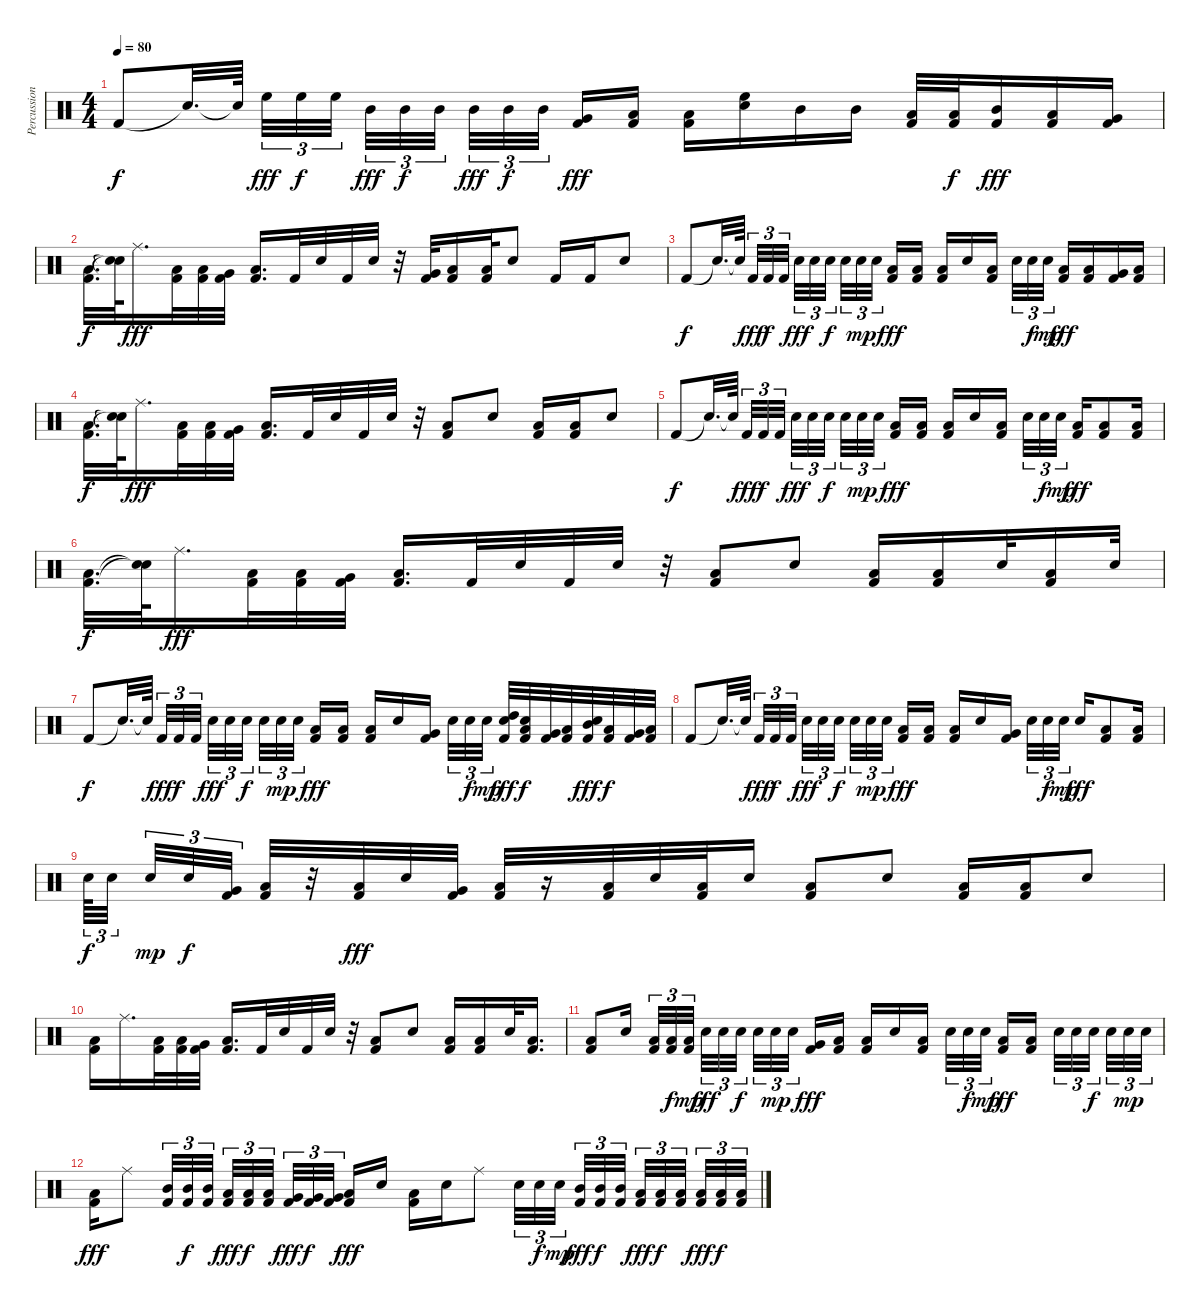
\track ("Percussion2" "Percussion") {instrument percussion}
\staff {score}
\articulation defaults
\ts (4 4)
\tempo 80
\clef neutral
\ks c "Kick (hit) 2".8{dy f} "Snare (hit)"{t}.32{d} "Snare (hit)"{t}.64{beam splitsecondary} "High Floor Tom (hit)".32{tu (3 2) dy fff} "High Floor Tom (hit)".32{tu (3 2) dy f} "High Floor Tom (hit)".32{tu (3 2)} "Mid Tom (hit)".32{tu (3 2) dy fff} "Mid Tom (hit)".32{tu (3 2) dy f} "Mid Tom (hit)".32{tu (3 2) beam splitsecondary} "Mid Tom (hit)".32{tu (3 2) dy fff} "Mid Tom (hit)".32{tu (3 2) dy f} "Mid Tom (hit)".32{tu (3 2) beam splitsecondary}
("Kick (hit) 2" "Very Low Tom (hit)").16{dy fff} ("Kick (hit) 2" "Low Floor Tom (hit)").16 ("Kick (hit) 2" "Low Floor Tom (hit)").16 ("Snare (hit) 2" "High Floor Tom (hit)").16 "Mid Tom (hit)".16 "Mid Tom (hit)".16 ("Kick (hit) 2" "Low Floor Tom (hit)").32 ("Kick (hit) 2" "Low Floor Tom (hit)").32{dy f} ("Kick (hit) 2" "Mid Tom (hit)").16{dy fff} ("Kick (hit) 2" "Low Tom (hit)").16 ("Kick (hit) 2" "Very Low Tom (hit)").16 |
("Kick (hit) 2" "Low Floor Tom (hit)").32{d dy f} ("Snare (hit)"{t} "Snare (hit)"{t}).64 "Ride (middle)".16{d dy fff} ("Kick (hit) 2" "Low Floor Tom (hit)").32 ("Kick (hit) 2" "Low Tom (hit)").32 ("Kick (hit) 2" "Very Low Tom (hit)").32 ("Kick (hit) 2" "Low Floor Tom (hit)").16{d} "Kick (hit) 2".32 "Snare (hit) 2".32 "Kick (hit) 2".32 "Snare (hit) 2".32 r.32 ("Kick (hit) 2" "Very Low Tom (hit)").32 ("Kick (hit) 2" "Low Floor Tom (hit)").16 ("Kick (hit) 2" "Low Floor Tom (hit)").32 "Snare (hit) 2".8 "Kick (hit) 2".16 "Kick (hit) 2".16 "Snare (hit) 2".8 |
"Kick (hit) 2".8{dy f} "Snare (hit)"{t}.32{d} "Snare (hit)"{t}.64{beam splitsecondary} "Kick (hit) 2".32{tu (3 2) dy fff} "Kick (hit) 2".32{tu (3 2) dy f} "Kick (hit) 2".32{tu (3 2)} "Snare (hit) 2".32{tu (3 2) dy fff} "Snare (hit) 2".32{tu (3 2)} "Snare (hit) 2".32{tu (3 2) dy f beam splitsecondary} "Snare (hit) 2".32{tu (3 2)} "Snare (hit) 2".32{tu (3 2) dy mp} "Snare (hit) 2".32{tu (3 2) beam splitsecondary} ("Kick (hit) 2" "Low Floor Tom (hit)").16{dy fff} ("Kick (hit) 2" "Low Floor Tom (hit)").16 ("Kick (hit) 2" "Low Floor Tom (hit)").16 "Snare (hit) 2".16 ("Kick (hit) 2" "Low Tom (hit)").16{beam splitsecondary} "Snare (hit) 2".32{tu (3 2)} "Snare (hit) 2".32{tu (3 2) dy f} "Snare (hit) 2".32{tu (3 2) dy mp} ("Kick (hit) 2" "Low Floor Tom (hit)").16{dy fff} ("Kick (hit) 2" "Low Tom (hit)").16 ("Kick (hit) 2" "Very Low Tom (hit)").16 ("Kick (hit) 2" "Low Floor Tom (hit)").16 |
("Kick (hit) 2" "Low Floor Tom (hit)").32{d dy f} ("Snare (hit)"{t} "Snare (hit)"{t}).64 "Ride (middle)".16{d dy fff} ("Kick (hit) 2" "Low Floor Tom (hit)").32 ("Kick (hit) 2" "Low Tom (hit)").32 ("Kick (hit) 2" "Very Low Tom (hit)").32 ("Kick (hit) 2" "Low Floor Tom (hit)").16{d} "Kick (hit) 2".32 "Snare (hit) 2".32 "Kick (hit) 2".32 "Snare (hit) 2".32 r.32 ("Kick (hit) 2" "Low Floor Tom (hit)").8 "Snare (hit) 2".8 ("Kick (hit) 2" "Low Floor Tom (hit)").16 ("Kick (hit) 2" "Low Floor Tom (hit)").16 "Snare (hit) 2".8 |
"Kick (hit) 2".8{dy f} "Snare (hit)"{t}.32{d} "Snare (hit)"{t}.64{beam splitsecondary} "Kick (hit) 2".32{tu (3 2) dy fff} "Kick (hit) 2".32{tu (3 2) dy f} "Kick (hit) 2".32{tu (3 2)} "Snare (hit) 2".32{tu (3 2) dy fff} "Snare (hit) 2".32{tu (3 2)} "Snare (hit) 2".32{tu (3 2) dy f beam splitsecondary} "Snare (hit) 2".32{tu (3 2)} "Snare (hit) 2".32{tu (3 2) dy mp} "Snare (hit) 2".32{tu (3 2) beam splitsecondary} ("Kick (hit) 2" "Low Floor Tom (hit)").16{dy fff} ("Kick (hit) 2" "Low Floor Tom (hit)").16 ("Kick (hit) 2" "Low Floor Tom (hit)").16 "Snare (hit) 2".16 ("Kick (hit) 2" "Low Tom (hit)").16{beam splitsecondary} "Snare (hit) 2".32{tu (3 2)} "Snare (hit) 2".32{tu (3 2) dy f} "Snare (hit) 2".32{tu (3 2) dy mp} ("Kick (hit) 2" "Low Floor Tom (hit)").16{dy fff} ("Kick (hit) 2" "Low Tom (hit)").8 ("Kick (hit) 2" "Low Tom (hit)").16 |
("Kick (hit) 2" "Low Floor Tom (hit)").32{d dy f} ("Snare (hit)"{t} "Snare (hit)"{t}).64 "Ride (middle)".16{d dy fff} ("Kick (hit) 2" "Low Floor Tom (hit)").32 ("Kick (hit) 2" "Low Tom (hit)").32 ("Kick (hit) 2" "Very Low Tom (hit)").32 ("Kick (hit) 2" "Low Floor Tom (hit)").16{d} "Kick (hit) 2".32 "Snare (hit) 2".32 "Kick (hit) 2".32 "Snare (hit) 2".32 r.32 ("Kick (hit) 2" "Low Floor Tom (hit)").8 "Snare (hit) 2".8 ("Kick (hit) 2" "Low Floor Tom (hit)").16 ("Kick (hit) 2" "Low Floor Tom (hit)").16 "Snare (hit) 2".32 ("Kick (hit) 2" "Low Floor Tom (hit)").16 "Snare (hit) 2".32 |
"Kick (hit) 2".8{dy f} "Snare (hit)"{t}.32{d} "Snare (hit)"{t}.64{beam splitsecondary} "Kick (hit) 2".32{tu (3 2) dy fff} "Kick (hit) 2".32{tu (3 2) dy f} "Kick (hit) 2".32{tu (3 2)} "Snare (hit) 2".32{tu (3 2) dy fff} "Snare (hit) 2".32{tu (3 2)} "Snare (hit) 2".32{tu (3 2) dy f beam splitsecondary} "Snare (hit) 2".32{tu (3 2)} "Snare (hit) 2".32{tu (3 2) dy mp} "Snare (hit) 2".32{tu (3 2) beam splitsecondary} ("Kick (hit) 2" "Low Floor Tom (hit)").16{dy fff} ("Kick (hit) 2" "Low Floor Tom (hit)").16 ("Kick (hit) 2" "Low Floor Tom (hit)").16 "Snare (hit) 2".16 ("Kick (hit) 2" "Very Low Tom (hit)").16{beam splitsecondary} "Snare (hit) 2".32{tu (3 2)} "Snare (hit) 2".32{tu (3 2) dy f} "Snare (hit) 2".32{tu (3 2) dy mp} ("Kick (hit) 2" "Snare (hit) 2" "High Tom (hit)").32{dy fff} ("Kick (hit) 2" "Snare (hit) 2" "Low Tom (hit)").32{dy f} ("Kick (hit) 2" "Very Low Tom (hit)").32 ("Kick (hit) 2" "Low Floor Tom (hit)").32 ("Kick (hit) 2" "Snare (hit) 2" "Mid Tom (hit)").32{dy fff} ("Kick (hit) 2" "Low Tom (hit)").32{dy f} ("Kick (hit) 2" "Very Low Tom (hit)").32 ("Kick (hit) 2" "Low Floor Tom (hit)").32 |
"Kick (hit) 2".8 "Snare (hit)"{t}.32{d} "Snare (hit)"{t}.64{beam splitsecondary} "Kick (hit) 2".32{tu (3 2) dy fff} "Kick (hit) 2".32{tu (3 2) dy f} "Kick (hit) 2".32{tu (3 2)} "Snare (hit) 2".32{tu (3 2) dy fff} "Snare (hit) 2".32{tu (3 2)} "Snare (hit) 2".32{tu (3 2) dy f beam splitsecondary} "Snare (hit) 2".32{tu (3 2)} "Snare (hit) 2".32{tu (3 2) dy mp} "Snare (hit) 2".32{tu (3 2) beam splitsecondary} ("Kick (hit) 2" "Low Floor Tom (hit)").16{dy fff} ("Kick (hit) 2" "Low Floor Tom (hit)").16 ("Kick (hit) 2" "Low Floor Tom (hit)").16 "Snare (hit) 2".16 ("Kick (hit) 2" "Very Low Tom (hit)").16{beam splitsecondary} "Snare (hit) 2".32{tu (3 2)} "Snare (hit) 2".32{tu (3 2) dy f} "Snare (hit) 2".32{tu (3 2) dy mp} "Snare (hit) 2".16{dy fff} ("Kick (hit) 2" "Low Floor Tom (hit)").8 ("Kick (hit) 2" "Low Floor Tom (hit)").16 |
"Snare (hit) 2".64{tu (3 2) dy f} "Snare (hit) 2".32{tu (3 2) beam splitsecondary} "Snare (hit) 2".32{tu (3 2) dy mp} "Snare (hit) 2".32{tu (3 2) dy f} ("Kick (hit) 2" "Very Low Tom (hit)").32{tu (3 2) beam splitsecondary} ("Kick (hit) 2" "Low Floor Tom (hit)").32 r.32 ("Kick (hit) 2" "Low Floor Tom (hit)").32{dy fff} "Snare (hit) 2".32 ("Kick (hit) 2" "Very Low Tom (hit)").32 ("Kick (hit) 2" "Low Floor Tom (hit)").32 r.16 ("Kick (hit) 2" "Low Floor Tom (hit)").32 "Snare (hit) 2".32 ("Kick (hit) 2" "Low Floor Tom (hit)").32 "Snare (hit) 2".16 ("Kick (hit) 2" "Low Floor Tom (hit)").8 "Snare (hit) 2".8 ("Kick (hit) 2" "Low Floor Tom (hit)").16 ("Kick (hit) 2" "Low Floor Tom (hit)").16 "Snare (hit) 2".8 |
("Kick (hit) 2" "Low Floor Tom (hit)").16 "Ride (middle)".16{d} ("Kick (hit) 2" "Low Floor Tom (hit)").32 ("Kick (hit) 2" "Low Tom (hit)").32 ("Kick (hit) 2" "Very Low Tom (hit)").32 ("Kick (hit) 2" "Low Floor Tom (hit)").16{d} "Kick (hit) 2".32 "Snare (hit) 2".32 "Kick (hit) 2".32 "Snare (hit) 2".32 r.32 ("Kick (hit) 2" "Low Floor Tom (hit)").8 "Snare (hit) 2".8 ("Kick (hit) 2" "Low Floor Tom (hit)").16 ("Kick (hit) 2" "Low Floor Tom (hit)").16 "Snare (hit) 2".32 ("Kick (hit) 2" "Low Floor Tom (hit)").16{d} |
("Kick (hit) 2" "Low Floor Tom (hit)").8 "Snare (hit) 2".16{beam splitsecondary} ("Kick (hit) 2" "Low Floor Tom (hit)").32{tu (3 2)} ("Kick (hit) 2" "Low Floor Tom (hit)").32{tu (3 2) dy f} ("Kick (hit) 2" "Low Floor Tom (hit)").32{tu (3 2) dy mp} "Snare (hit) 2".32{tu (3 2) dy fff} "Snare (hit) 2".32{tu (3 2)} "Snare (hit) 2".32{tu (3 2) dy f beam splitsecondary} "Snare (hit) 2".32{tu (3 2)} "Snare (hit) 2".32{tu (3 2) dy mp} "Snare (hit) 2".32{tu (3 2) beam splitsecondary} ("Kick (hit) 2" "Very Low Tom (hit)").16{dy fff} ("Kick (hit) 2" "Low Floor Tom (hit)").16 ("Kick (hit) 2" "Low Floor Tom (hit)").16 "Snare (hit) 2".16 ("Kick (hit) 2" "Low Floor Tom (hit)").16{beam splitsecondary} "Snare (hit) 2".32{tu (3 2)} "Snare (hit) 2".32{tu (3 2) dy f} "Snare (hit) 2".32{tu (3 2) dy mp} ("Kick (hit) 2" "Low Floor Tom (hit)").16{dy fff} ("Kick (hit) 2" "Low Tom (hit)").16{beam splitsecondary} "Snare (hit) 2".32{tu (3 2)} "Snare (hit) 2".32{tu (3 2)} "Snare (hit) 2".32{tu (3 2) dy f beam splitsecondary} "Snare (hit) 2".32{tu (3 2)} "Snare (hit) 2".32{tu (3 2) dy mp} "Snare (hit) 2".32{tu (3 2)} |
("Kick (hit) 2" "Low Floor Tom (hit)").16{dy fff} "Ride (middle)".8 ("Kick (hit) 2" "Mid Tom (hit)").32{tu (3 2)} ("Kick (hit) 2" "Mid Tom (hit)").32{tu (3 2) dy f} ("Kick (hit) 2" "Mid Tom (hit)").32{tu (3 2)} ("Kick (hit) 2" "Low Tom (hit)").32{tu (3 2) dy fff} ("Kick (hit) 2" "Low Tom (hit)").32{tu (3 2) dy f} ("Kick (hit) 2" "Low Tom (hit)").32{tu (3 2) beam splitsecondary} ("Kick (hit) 2" "Very Low Tom (hit)").32{tu (3 2) dy fff} ("Kick (hit) 2" "Very Low Tom (hit)").32{tu (3 2) dy f} ("Kick (hit) 2" "Very Low Tom (hit)").32{tu (3 2) beam splitsecondary} ("Kick (hit) 2" "Low Floor Tom (hit)").16{dy fff} "Snare (hit) 2".16 ("Kick (hit) 2" "Low Floor Tom (hit)").16 "Snare (hit) 2".16 "Ride (middle)".8 "Snare (hit) 2".32{tu (3 2)} "Snare (hit) 2".32{tu (3 2) dy f} "Snare (hit) 2".32{tu (3 2) dy mp beam splitsecondary} ("Kick (hit) 2" "Mid Tom (hit)").32{tu (3 2) dy fff} ("Kick (hit) 2" "Mid Tom (hit)").32{tu (3 2) dy f} ("Kick (hit) 2" "Mid Tom (hit)").32{tu (3 2) beam splitsecondary} ("Kick (hit) 2" "Low Tom (hit)").32{tu (3 2) dy fff} ("Kick (hit) 2" "Low Tom (hit)").32{tu (3 2) dy f} ("Kick (hit) 2" "Low Tom (hit)").32{tu (3 2) beam splitsecondary} ("Kick (hit) 2" "Low Floor Tom (hit)").32{tu (3 2) dy fff} ("Kick (hit) 2" "Low Floor Tom (hit)").32{tu (3 2) dy f} ("Kick (hit) 2" "Low Floor Tom (hit)").32{tu (3 2)}
